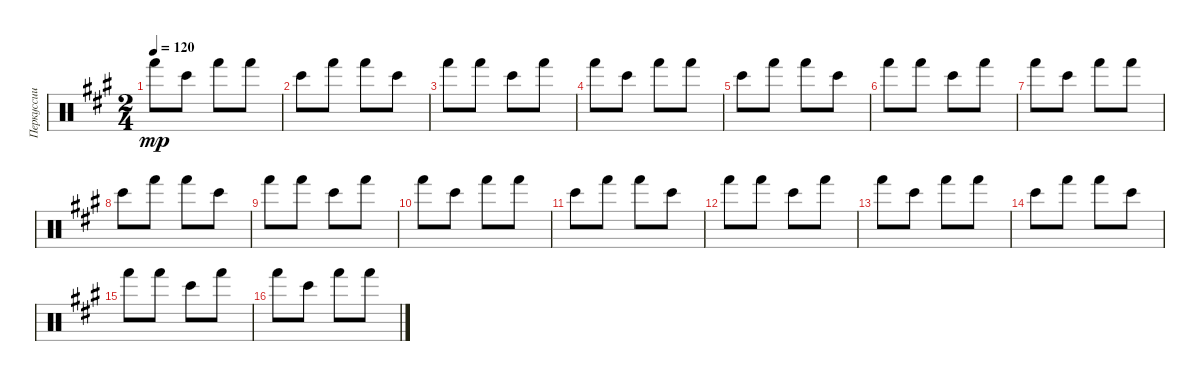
\track ("Перкуссии" "Перкуссии") {instrument percussion}
\staff {score}
\articulation defaults
\ts (2 4)
\tempo 120
\clef neutral
\ks f#minor "Hand (hit)".8{dy mp} "Bongo High (hit)".8 "Hand (hit)".8 "Hand (hit)".8
|
"Bongo High (hit)".8 "Hand (hit)".8 "Hand (hit)".8 "Bongo High (hit)".8 |
"Hand (hit)".8 "Hand (hit)".8 "Bongo High (hit)".8 "Hand (hit)".8 |
"Hand (hit)".8 "Bongo High (hit)".8 "Hand (hit)".8 "Hand (hit)".8 |
"Bongo High (hit)".8 "Hand (hit)".8 "Hand (hit)".8 "Bongo High (hit)".8 |
"Hand (hit)".8 "Hand (hit)".8 "Bongo High (hit)".8 "Hand (hit)".8 |
"Hand (hit)".8 "Bongo High (hit)".8 "Hand (hit)".8 "Hand (hit)".8 |
"Bongo High (hit)".8 "Hand (hit)".8 "Hand (hit)".8 "Bongo High (hit)".8 |
"Hand (hit)".8 "Hand (hit)".8 "Bongo High (hit)".8 "Hand (hit)".8 |
"Hand (hit)".8 "Bongo High (hit)".8 "Hand (hit)".8 "Hand (hit)".8 |
"Bongo High (hit)".8 "Hand (hit)".8 "Hand (hit)".8 "Bongo High (hit)".8 |
"Hand (hit)".8 "Hand (hit)".8 "Bongo High (hit)".8 "Hand (hit)".8 |
"Hand (hit)".8 "Bongo High (hit)".8 "Hand (hit)".8 "Hand (hit)".8 |
"Bongo High (hit)".8 "Hand (hit)".8 "Hand (hit)".8 "Bongo High (hit)".8 |
"Hand (hit)".8 "Hand (hit)".8 "Bongo High (hit)".8 "Hand (hit)".8 |
"Hand (hit)".8 "Bongo High (hit)".8 "Hand (hit)".8 "Hand (hit)".8
